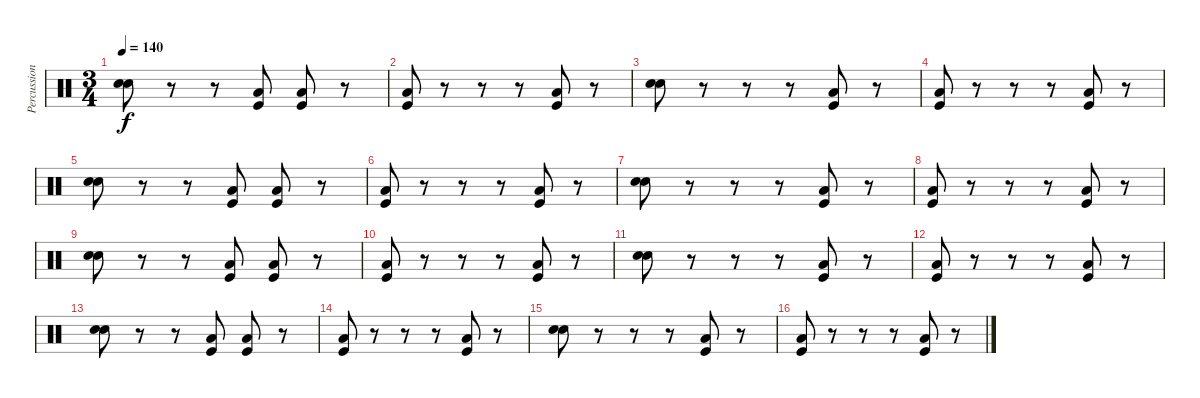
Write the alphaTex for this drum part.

\track ("Percussion" "Percussion") {instrument percussion}
\staff {score}
\articulation defaults
\ts (3 4)
\tempo 140
\clef neutral
\ks c
("Electric Snare (hit)" "Snare (hit) 2").8{dy f} r.8 r.8 ("Kick (hit)" "Low Floor Tom (hit)").8 ("Kick (hit)" "Low Floor Tom (hit)").8 r.8 |
("Kick (hit)" "Low Floor Tom (hit)").8 r.8 r.8 r.8 ("Kick (hit)" "Low Floor Tom (hit)").8 r.8 |
("Electric Snare (hit)" "Snare (hit) 2").8 r.8 r.8 r.8 ("Kick (hit)" "Low Floor Tom (hit)").8 r.8 |
("Kick (hit)" "Low Floor Tom (hit)").8 r.8 r.8 r.8 ("Kick (hit)" "Low Floor Tom (hit)").8 r.8 |
("Electric Snare (hit)" "Snare (hit) 2").8 r.8 r.8 ("Kick (hit)" "Low Floor Tom (hit)").8 ("Kick (hit)" "Low Floor Tom (hit)").8 r.8 |
("Kick (hit)" "Low Floor Tom (hit)").8 r.8 r.8 r.8 ("Kick (hit)" "Low Floor Tom (hit)").8 r.8 |
("Electric Snare (hit)" "Snare (hit) 2").8 r.8 r.8 r.8 ("Kick (hit)" "Low Floor Tom (hit)").8 r.8 |
("Kick (hit)" "Low Floor Tom (hit)").8 r.8 r.8 r.8 ("Kick (hit)" "Low Floor Tom (hit)").8 r.8 |
("Electric Snare (hit)" "Snare (hit) 2").8 r.8 r.8 ("Kick (hit)" "Low Floor Tom (hit)").8 ("Kick (hit)" "Low Floor Tom (hit)").8 r.8 |
("Kick (hit)" "Low Floor Tom (hit)").8 r.8 r.8 r.8 ("Kick (hit)" "Low Floor Tom (hit)").8 r.8 |
("Electric Snare (hit)" "Snare (hit) 2").8 r.8 r.8 r.8 ("Kick (hit)" "Low Floor Tom (hit)").8 r.8 |
("Kick (hit)" "Low Floor Tom (hit)").8 r.8 r.8 r.8 ("Kick (hit)" "Low Floor Tom (hit)").8 r.8 |
("Electric Snare (hit)" "Snare (hit) 2").8 r.8 r.8 ("Kick (hit)" "Low Floor Tom (hit)").8 ("Kick (hit)" "Low Floor Tom (hit)").8 r.8 |
("Kick (hit)" "Low Floor Tom (hit)").8 r.8 r.8 r.8 ("Kick (hit)" "Low Floor Tom (hit)").8 r.8 |
("Electric Snare (hit)" "Snare (hit) 2").8 r.8 r.8 r.8 ("Kick (hit)" "Low Floor Tom (hit)").8 r.8 |
("Kick (hit)" "Low Floor Tom (hit)").8 r.8 r.8 r.8 ("Kick (hit)" "Low Floor Tom (hit)").8 r.8
